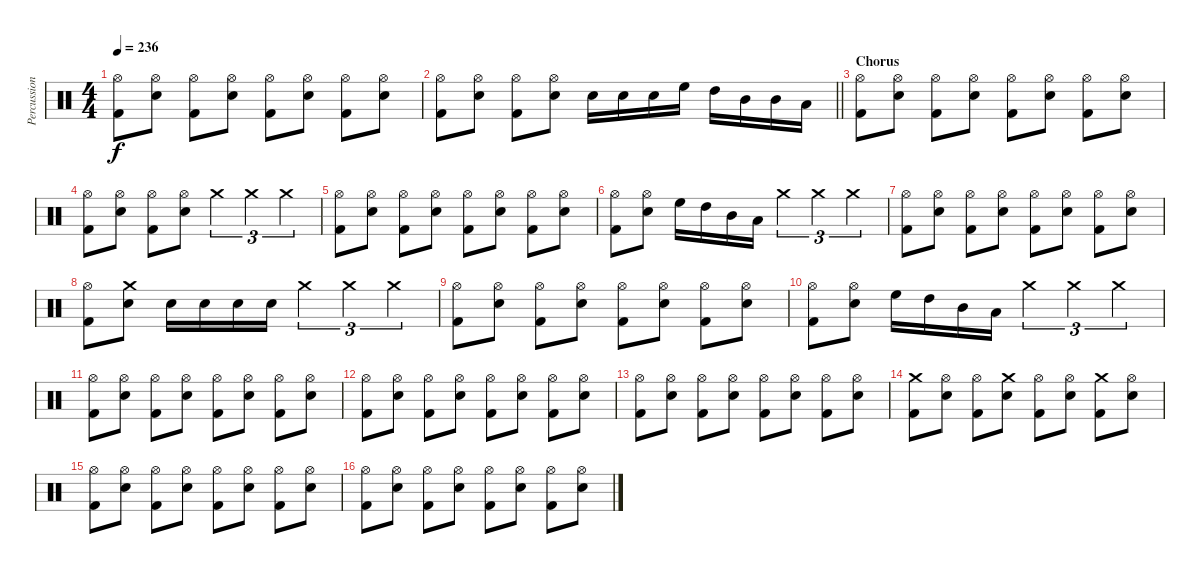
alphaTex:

\track ("Percussion" "Percussion") {instrument percussion}
\staff {score}
\articulation defaults
\ts (4 4)
\tempo 236
\clef neutral
\ks c
("Hi-Hat (open)" "Kick (hit) 2").8{dy f} ("Hi-Hat (open)" "Snare (hit) 2").8 ("Hi-Hat (open)" "Kick (hit) 2").8 ("Hi-Hat (open)" "Snare (hit) 2").8 ("Hi-Hat (open)" "Kick (hit) 2").8 ("Hi-Hat (open)" "Snare (hit) 2").8 ("Hi-Hat (open)" "Kick (hit) 2").8 ("Hi-Hat (open)" "Snare (hit) 2").8 |
\barLineRight lightlight
("Hi-Hat (open)" "Kick (hit) 2").8 ("Hi-Hat (open)" "Snare (hit) 2").8 ("Hi-Hat (open)" "Kick (hit) 2").8 ("Hi-Hat (open)" "Snare (hit) 2").8 "Snare (hit) 2".16 "Snare (hit) 2".16 "Snare (hit) 2".16 "High Floor Tom (hit)".16 "High Tom (hit)".16 "Mid Tom (hit)".16 "Mid Tom (hit)".16 "Low Tom (hit)".16 |
\section ("" "Chorus")
("Hi-Hat (open)" "Kick (hit) 2").8 ("Hi-Hat (open)" "Snare (hit) 2").8 ("Hi-Hat (open)" "Kick (hit) 2").8 ("Hi-Hat (open)" "Snare (hit) 2").8 ("Hi-Hat (open)" "Kick (hit) 2").8 ("Hi-Hat (open)" "Snare (hit) 2").8 ("Hi-Hat (open)" "Kick (hit) 2").8 ("Hi-Hat (open)" "Snare (hit) 2").8 |
("Hi-Hat (open)" "Kick (hit) 2").8 ("Hi-Hat (open)" "Snare (hit) 2").8 ("Hi-Hat (open)" "Kick (hit) 2").8 ("Hi-Hat (open)" "Snare (hit) 2").8 "Crash medium (hit)".4{tu (3 2)} "Crash medium (hit)".4{tu (3 2)} "Crash medium (hit)".4{tu (3 2)} |
("Hi-Hat (open)" "Kick (hit) 2").8 ("Hi-Hat (open)" "Snare (hit) 2").8 ("Hi-Hat (open)" "Kick (hit) 2").8 ("Hi-Hat (open)" "Snare (hit) 2").8 ("Hi-Hat (open)" "Kick (hit) 2").8 ("Hi-Hat (open)" "Snare (hit) 2").8 ("Hi-Hat (open)" "Kick (hit) 2").8 ("Hi-Hat (open)" "Snare (hit) 2").8 |
("Hi-Hat (open)" "Kick (hit) 2").8 ("Hi-Hat (open)" "Snare (hit) 2").8 "High Floor Tom (hit)".16 "High Tom (hit)".16 "Mid Tom (hit)".16 "Low Tom (hit)".16 "Crash medium (hit)".4{tu (3 2)} "Crash medium (hit)".4{tu (3 2)} "Crash medium (hit)".4{tu (3 2)} |
("Hi-Hat (open)" "Kick (hit) 2").8 ("Hi-Hat (open)" "Snare (hit) 2").8 ("Hi-Hat (open)" "Kick (hit) 2").8 ("Hi-Hat (open)" "Snare (hit) 2").8 ("Hi-Hat (open)" "Kick (hit) 2").8 ("Hi-Hat (open)" "Snare (hit) 2").8 ("Hi-Hat (open)" "Kick (hit) 2").8 ("Hi-Hat (open)" "Snare (hit) 2").8 |
("Hi-Hat (open)" "Kick (hit) 2").8 ("Crash medium (hit)" "Snare (hit) 2").8 "Snare (hit) 2".16 "Snare (hit) 2".16 "Snare (hit) 2".16 "Snare (hit) 2".16 "Crash medium (hit)".4{tu (3 2)} "Crash medium (hit)".4{tu (3 2)} "Crash medium (hit)".4{tu (3 2)} |
("Hi-Hat (open)" "Kick (hit) 2").8 ("Hi-Hat (open)" "Snare (hit) 2").8 ("Hi-Hat (open)" "Kick (hit) 2").8 ("Hi-Hat (open)" "Snare (hit) 2").8 ("Hi-Hat (open)" "Kick (hit) 2").8 ("Hi-Hat (open)" "Snare (hit) 2").8 ("Hi-Hat (open)" "Kick (hit) 2").8 ("Hi-Hat (open)" "Snare (hit) 2").8 |
("Hi-Hat (open)" "Kick (hit) 2").8 ("Hi-Hat (open)" "Snare (hit) 2").8 "High Floor Tom (hit)".16 "High Tom (hit)".16 "Mid Tom (hit)".16 "Low Tom (hit)".16 "Crash medium (hit)".4{tu (3 2)} "Crash medium (hit)".4{tu (3 2)} "Crash medium (hit)".4{tu (3 2)} |
("Hi-Hat (open)" "Kick (hit) 2").8 ("Hi-Hat (open)" "Snare (hit) 2").8 ("Hi-Hat (open)" "Kick (hit) 2").8 ("Hi-Hat (open)" "Snare (hit) 2").8 ("Hi-Hat (open)" "Kick (hit) 2").8 ("Hi-Hat (open)" "Snare (hit) 2").8 ("Hi-Hat (open)" "Kick (hit) 2").8 ("Hi-Hat (open)" "Snare (hit) 2").8 |
("Hi-Hat (open)" "Kick (hit) 2").8 ("Hi-Hat (open)" "Snare (hit) 2").8 ("Hi-Hat (open)" "Kick (hit) 2").8 ("Hi-Hat (open)" "Snare (hit) 2").8 ("Hi-Hat (open)" "Kick (hit) 2").8 ("Hi-Hat (open)" "Snare (hit) 2").8 ("Hi-Hat (open)" "Kick (hit) 2").8 ("Hi-Hat (open)" "Snare (hit) 2").8 |
("Hi-Hat (open)" "Kick (hit) 2").8 ("Hi-Hat (open)" "Snare (hit) 2").8 ("Hi-Hat (open)" "Kick (hit) 2").8 ("Hi-Hat (open)" "Snare (hit) 2").8 ("Hi-Hat (open)" "Kick (hit) 2").8 ("Hi-Hat (open)" "Snare (hit) 2").8 ("Hi-Hat (open)" "Kick (hit) 2").8 ("Hi-Hat (open)" "Snare (hit) 2").8 |
("Crash medium (hit)" "Kick (hit) 2").8 ("Hi-Hat (open)" "Snare (hit) 2").8 ("Hi-Hat (open)" "Kick (hit) 2").8 ("Crash medium (hit)" "Snare (hit) 2").8 ("Hi-Hat (open)" "Kick (hit) 2").8 ("Hi-Hat (open)" "Snare (hit) 2").8 ("Crash medium (hit)" "Kick (hit) 2").8 ("Hi-Hat (open)" "Snare (hit) 2").8 |
("Hi-Hat (open)" "Kick (hit) 2").8 ("Hi-Hat (open)" "Snare (hit) 2").8 ("Hi-Hat (open)" "Kick (hit) 2").8 ("Hi-Hat (open)" "Snare (hit) 2").8 ("Hi-Hat (open)" "Kick (hit) 2").8 ("Hi-Hat (open)" "Snare (hit) 2").8 ("Hi-Hat (open)" "Kick (hit) 2").8 ("Hi-Hat (open)" "Snare (hit) 2").8 |
("Hi-Hat (open)" "Kick (hit) 2").8 ("Hi-Hat (open)" "Snare (hit) 2").8 ("Hi-Hat (open)" "Kick (hit) 2").8 ("Hi-Hat (open)" "Snare (hit) 2").8 ("Hi-Hat (open)" "Kick (hit) 2").8 ("Hi-Hat (open)" "Snare (hit) 2").8 ("Hi-Hat (open)" "Kick (hit) 2").8 ("Hi-Hat (open)" "Snare (hit) 2").8
